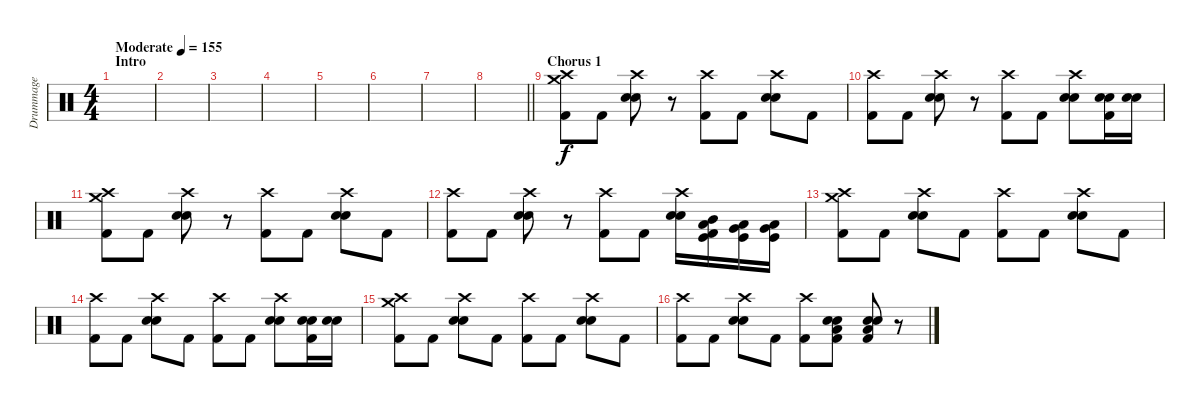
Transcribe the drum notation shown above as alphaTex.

\track ("Drummage" "Drummage") {instrument percussion}
\staff {score}
\articulation defaults
\ts (4 4)
\section ("" "Intro")
\tempo (155 "Moderate")
\clef neutral
\ks c
|
|
|
|
|
|
|
\barLineRight lightlight
|
\section ("" "Chorus 1")
("Crash medium (hit)" "Crash high (hit)" "Kick (hit) 2").8 "Kick (hit) 2".8 ("Crash high (hit)" "Snare (hit) 2" "Electric Snare (hit)").8 r.8 ("Crash high (hit)" "Kick (hit) 2").8 "Kick (hit) 2".8 ("Crash high (hit)" "Snare (hit) 2" "Electric Snare (hit)").8 "Kick (hit) 2".8 |
("Crash high (hit)" "Kick (hit) 2").8 "Kick (hit) 2".8 ("Crash high (hit)" "Snare (hit) 2" "Electric Snare (hit)").8 r.8 ("Crash high (hit)" "Kick (hit) 2").8 "Kick (hit) 2".8 ("Crash high (hit)" "Snare (hit) 2" "Electric Snare (hit)").8 ("Snare (hit) 2" "Electric Snare (hit)" "Kick (hit) 2").16 ("Snare (hit) 2" "Electric Snare (hit)").16 |
("Crash medium (hit)" "Crash high (hit)" "Kick (hit) 2").8 "Kick (hit) 2".8 ("Crash high (hit)" "Snare (hit) 2" "Electric Snare (hit)").8 r.8 ("Crash high (hit)" "Kick (hit) 2").8 "Kick (hit) 2".8 ("Crash high (hit)" "Snare (hit) 2" "Electric Snare (hit)").8 "Kick (hit) 2".8 |
("Crash high (hit)" "Kick (hit) 2").8 "Kick (hit) 2".8 ("Crash high (hit)" "Snare (hit) 2" "Electric Snare (hit)").8 r.8 ("Crash high (hit)" "Kick (hit) 2").8 "Kick (hit) 2".8 ("Crash high (hit)" "Snare (hit) 2" "Electric Snare (hit)").16 ("Low Tom (hit)" "Mid Tom (hit)" "Kick (hit)" "Kick (hit) 2").16 ("Very Low Tom (hit)" "Low Tom (hit)" "Kick (hit)").16 ("Low Floor Tom (hit)" "Very Low Tom (hit)" "Kick (hit)").16 |
("Crash medium (hit)" "Crash high (hit)" "Kick (hit) 2").8 "Kick (hit) 2".8 ("Crash high (hit)" "Snare (hit) 2" "Electric Snare (hit)").8 "Kick (hit) 2".8 ("Crash high (hit)" "Kick (hit) 2").8 "Kick (hit) 2".8 ("Crash high (hit)" "Snare (hit) 2" "Electric Snare (hit)").8 "Kick (hit) 2".8 |
("Crash high (hit)" "Kick (hit) 2").8 "Kick (hit) 2".8 ("Crash high (hit)" "Snare (hit) 2" "Electric Snare (hit)").8 "Kick (hit) 2".8 ("Crash high (hit)" "Kick (hit) 2").8 "Kick (hit) 2".8 ("Crash high (hit)" "Snare (hit) 2" "Electric Snare (hit)").8 ("Snare (hit) 2" "Electric Snare (hit)" "Kick (hit) 2").16 ("Snare (hit) 2" "Electric Snare (hit)").16 |
("Crash medium (hit)" "Crash high (hit)" "Kick (hit) 2").8 "Kick (hit) 2".8 ("Crash high (hit)" "Snare (hit) 2" "Electric Snare (hit)").8 "Kick (hit) 2".8 ("Crash high (hit)" "Kick (hit) 2").8 "Kick (hit) 2".8 ("Crash high (hit)" "Snare (hit) 2" "Electric Snare (hit)").8 "Kick (hit) 2".8 |
("Crash high (hit)" "Kick (hit) 2").8 "Kick (hit) 2".8 ("Crash high (hit)" "Snare (hit) 2" "Electric Snare (hit)").8 "Kick (hit) 2".8 ("Crash high (hit)" "Kick (hit) 2").8 ("Snare (hit) 2" "Electric Snare (hit)" "Low Floor Tom (hit)" "Kick (hit) 2").8 ("Snare (hit) 2" "Electric Snare (hit)" "Low Floor Tom (hit)" "Kick (hit) 2").8 r.8
